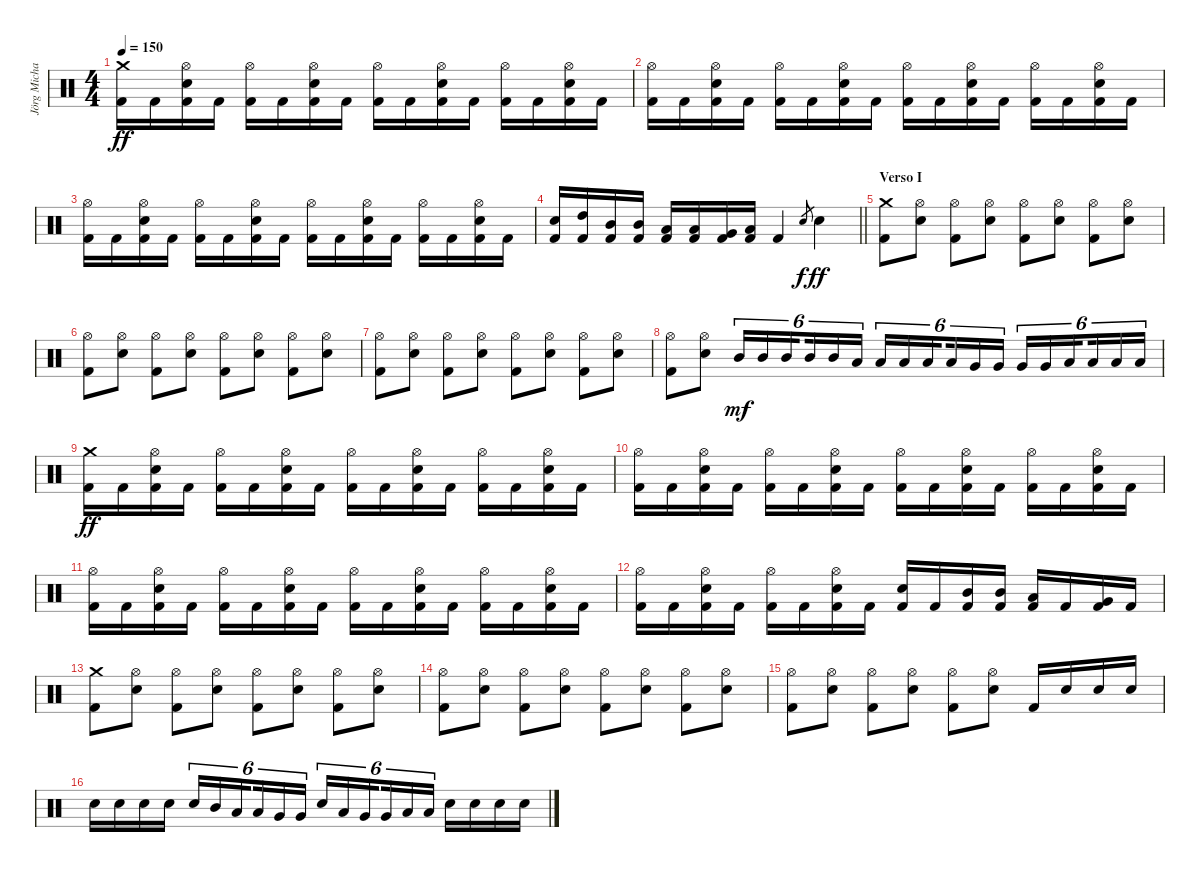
\track ("Jörg Michael" "Jörg Micha") {instrument percussion}
\staff {score}
\articulation defaults
\ts (4 4)
\tempo 150
\clef neutral
\ks c
("Crash medium (hit)" "Kick (hit) 2").16{dy ff} "Kick (hit) 2".16 ("Hi-Hat (open)" "Electric Snare (hit)" "Kick (hit) 2").16 "Kick (hit) 2".16 ("Hi-Hat (open)" "Kick (hit) 2").16 "Kick (hit) 2".16 ("Hi-Hat (open)" "Electric Snare (hit)" "Kick (hit) 2").16 "Kick (hit) 2".16 ("Hi-Hat (open)" "Kick (hit) 2").16 "Kick (hit) 2".16 ("Hi-Hat (open)" "Electric Snare (hit)" "Kick (hit) 2").16 "Kick (hit) 2".16 ("Hi-Hat (open)" "Kick (hit) 2").16 "Kick (hit) 2".16 ("Hi-Hat (open)" "Electric Snare (hit)" "Kick (hit) 2").16 "Kick (hit) 2".16 |
("Hi-Hat (open)" "Kick (hit) 2").16 "Kick (hit) 2".16 ("Hi-Hat (open)" "Electric Snare (hit)" "Kick (hit) 2").16 "Kick (hit) 2".16 ("Hi-Hat (open)" "Kick (hit) 2").16 "Kick (hit) 2".16 ("Hi-Hat (open)" "Electric Snare (hit)" "Kick (hit) 2").16 "Kick (hit) 2".16 ("Hi-Hat (open)" "Kick (hit) 2").16 "Kick (hit) 2".16 ("Hi-Hat (open)" "Electric Snare (hit)" "Kick (hit) 2").16 "Kick (hit) 2".16 ("Hi-Hat (open)" "Kick (hit) 2").16 "Kick (hit) 2".16 ("Hi-Hat (open)" "Electric Snare (hit)" "Kick (hit) 2").16 "Kick (hit) 2".16 |
("Hi-Hat (open)" "Kick (hit) 2").16 "Kick (hit) 2".16 ("Hi-Hat (open)" "Electric Snare (hit)" "Kick (hit) 2").16 "Kick (hit) 2".16 ("Hi-Hat (open)" "Kick (hit) 2").16 "Kick (hit) 2".16 ("Hi-Hat (open)" "Electric Snare (hit)" "Kick (hit) 2").16 "Kick (hit) 2".16 ("Hi-Hat (open)" "Kick (hit) 2").16 "Kick (hit) 2".16 ("Hi-Hat (open)" "Electric Snare (hit)" "Kick (hit) 2").16 "Kick (hit) 2".16 ("Hi-Hat (open)" "Kick (hit) 2").16 "Kick (hit) 2".16 ("Hi-Hat (open)" "Electric Snare (hit)" "Kick (hit) 2").16 "Kick (hit) 2".16 |
\barLineRight lightlight
("Electric Snare (hit)" "Kick (hit) 2").16 ("High Tom (hit)" "Kick (hit) 2").16 ("Mid Tom (hit)" "Kick (hit) 2").16 ("Mid Tom (hit)" "Kick (hit) 2").16 ("Low Tom (hit)" "Kick (hit) 2").16 ("Low Tom (hit)" "Kick (hit) 2").16 ("Very Low Tom (hit)" "Kick (hit) 2").16 ("Low Floor Tom (hit)" "Kick (hit) 2").16 "Kick (hit) 2".4 "Electric Snare (hit)".8{gr dy f} "Electric Snare (hit)".4{dy ff} |
\section ("" "Verso I")
("Crash medium (hit)" "Kick (hit) 2").8 ("Hi-Hat (open)" "Electric Snare (hit)").8 ("Hi-Hat (open)" "Kick (hit) 2").8 ("Hi-Hat (open)" "Electric Snare (hit)").8 ("Hi-Hat (open)" "Kick (hit) 2").8 ("Hi-Hat (open)" "Electric Snare (hit)").8 ("Hi-Hat (open)" "Kick (hit) 2").8 ("Hi-Hat (open)" "Electric Snare (hit)").8 |
("Hi-Hat (open)" "Kick (hit) 2").8 ("Hi-Hat (open)" "Electric Snare (hit)").8 ("Hi-Hat (open)" "Kick (hit) 2").8 ("Hi-Hat (open)" "Electric Snare (hit)").8 ("Hi-Hat (open)" "Kick (hit) 2").8 ("Hi-Hat (open)" "Electric Snare (hit)").8 ("Hi-Hat (open)" "Kick (hit) 2").8 ("Hi-Hat (open)" "Electric Snare (hit)").8 |
("Hi-Hat (open)" "Kick (hit) 2").8 ("Hi-Hat (open)" "Electric Snare (hit)").8 ("Hi-Hat (open)" "Kick (hit) 2").8 ("Hi-Hat (open)" "Electric Snare (hit)").8 ("Hi-Hat (open)" "Kick (hit) 2").8 ("Hi-Hat (open)" "Electric Snare (hit)").8 ("Hi-Hat (open)" "Kick (hit) 2").8 ("Hi-Hat (open)" "Electric Snare (hit)").8 |
("Hi-Hat (open)" "Kick (hit) 2").8 ("Hi-Hat (open)" "Electric Snare (hit)").8 "Mid Tom (hit)".16{tu (6 4) dy mf} "Mid Tom (hit)".16{tu (6 4)} "Mid Tom (hit)".16{tu (6 4) beam splitsecondary} "Mid Tom (hit)".16{tu (6 4)} "Mid Tom (hit)".16{tu (6 4)} "Low Tom (hit)".16{tu (6 4)} "Low Tom (hit)".16{tu (6 4)} "Low Tom (hit)".16{tu (6 4)} "Low Tom (hit)".16{tu (6 4) beam splitsecondary} "Low Tom (hit)".16{tu (6 4)} "Very Low Tom (hit)".16{tu (6 4)} "Very Low Tom (hit)".16{tu (6 4)} "Very Low Tom (hit)".16{tu (6 4)} "Very Low Tom (hit)".16{tu (6 4)} "Low Floor Tom (hit)".16{tu (6 4) beam splitsecondary} "Low Floor Tom (hit)".16{tu (6 4)} "Low Floor Tom (hit)".16{tu (6 4)} "Low Floor Tom (hit)".16{tu (6 4)} |
("Crash medium (hit)" "Kick (hit) 2").16{dy ff} "Kick (hit) 2".16 ("Hi-Hat (open)" "Electric Snare (hit)" "Kick (hit) 2").16 "Kick (hit) 2".16 ("Hi-Hat (open)" "Kick (hit) 2").16 "Kick (hit) 2".16 ("Hi-Hat (open)" "Electric Snare (hit)" "Kick (hit) 2").16 "Kick (hit) 2".16 ("Hi-Hat (open)" "Kick (hit) 2").16 "Kick (hit) 2".16 ("Hi-Hat (open)" "Electric Snare (hit)" "Kick (hit) 2").16 "Kick (hit) 2".16 ("Hi-Hat (open)" "Kick (hit) 2").16 "Kick (hit) 2".16 ("Hi-Hat (open)" "Electric Snare (hit)" "Kick (hit) 2").16 "Kick (hit) 2".16 |
("Hi-Hat (open)" "Kick (hit) 2").16 "Kick (hit) 2".16 ("Hi-Hat (open)" "Electric Snare (hit)" "Kick (hit) 2").16 "Kick (hit) 2".16 ("Hi-Hat (open)" "Kick (hit) 2").16 "Kick (hit) 2".16 ("Hi-Hat (open)" "Electric Snare (hit)" "Kick (hit) 2").16 "Kick (hit) 2".16 ("Hi-Hat (open)" "Kick (hit) 2").16 "Kick (hit) 2".16 ("Hi-Hat (open)" "Electric Snare (hit)" "Kick (hit) 2").16 "Kick (hit) 2".16 ("Hi-Hat (open)" "Kick (hit) 2").16 "Kick (hit) 2".16 ("Hi-Hat (open)" "Electric Snare (hit)" "Kick (hit) 2").16 "Kick (hit) 2".16 |
("Hi-Hat (open)" "Kick (hit) 2").16 "Kick (hit) 2".16 ("Hi-Hat (open)" "Electric Snare (hit)" "Kick (hit) 2").16 "Kick (hit) 2".16 ("Hi-Hat (open)" "Kick (hit) 2").16 "Kick (hit) 2".16 ("Hi-Hat (open)" "Electric Snare (hit)" "Kick (hit) 2").16 "Kick (hit) 2".16 ("Hi-Hat (open)" "Kick (hit) 2").16 "Kick (hit) 2".16 ("Hi-Hat (open)" "Electric Snare (hit)" "Kick (hit) 2").16 "Kick (hit) 2".16 ("Hi-Hat (open)" "Kick (hit) 2").16 "Kick (hit) 2".16 ("Hi-Hat (open)" "Electric Snare (hit)" "Kick (hit) 2").16 "Kick (hit) 2".16 |
("Hi-Hat (open)" "Kick (hit) 2").16 "Kick (hit) 2".16 ("Hi-Hat (open)" "Electric Snare (hit)" "Kick (hit) 2").16 "Kick (hit) 2".16 ("Hi-Hat (open)" "Kick (hit) 2").16 "Kick (hit) 2".16 ("Hi-Hat (open)" "Electric Snare (hit)" "Kick (hit) 2").16 "Kick (hit) 2".16 ("Electric Snare (hit)" "Kick (hit) 2").16 "Kick (hit) 2".16 ("Mid Tom (hit)" "Kick (hit) 2").16 ("Mid Tom (hit)" "Kick (hit) 2").16 ("Low Tom (hit)" "Kick (hit) 2").16 "Kick (hit) 2".16 ("Very Low Tom (hit)" "Kick (hit) 2").16 "Kick (hit) 2".16 |
("Crash medium (hit)" "Kick (hit) 2").8 ("Hi-Hat (open)" "Electric Snare (hit)").8 ("Hi-Hat (open)" "Kick (hit) 2").8 ("Hi-Hat (open)" "Electric Snare (hit)").8 ("Hi-Hat (open)" "Kick (hit) 2").8 ("Hi-Hat (open)" "Electric Snare (hit)").8 ("Hi-Hat (open)" "Kick (hit) 2").8 ("Hi-Hat (open)" "Electric Snare (hit)").8 |
("Hi-Hat (open)" "Kick (hit) 2").8 ("Hi-Hat (open)" "Electric Snare (hit)").8 ("Hi-Hat (open)" "Kick (hit) 2").8 ("Hi-Hat (open)" "Electric Snare (hit)").8 ("Hi-Hat (open)" "Kick (hit) 2").8 ("Hi-Hat (open)" "Electric Snare (hit)").8 ("Hi-Hat (open)" "Kick (hit) 2").8 ("Hi-Hat (open)" "Electric Snare (hit)").8 |
("Hi-Hat (open)" "Kick (hit) 2").8 ("Hi-Hat (open)" "Electric Snare (hit)").8 ("Hi-Hat (open)" "Kick (hit) 2").8 ("Hi-Hat (open)" "Electric Snare (hit)").8 ("Hi-Hat (open)" "Kick (hit) 2").8 ("Hi-Hat (open)" "Electric Snare (hit)").8 "Kick (hit) 2".16 "Electric Snare (hit)".16 "Electric Snare (hit)".16 "Electric Snare (hit)".16 |
"Electric Snare (hit)".16 "Electric Snare (hit)".16 "Electric Snare (hit)".16 "Electric Snare (hit)".16 "Electric Snare (hit)".16{tu (6 4)} "Mid Tom (hit)".16{tu (6 4)} "Low Tom (hit)".16{tu (6 4) beam splitsecondary} "Low Tom (hit)".16{tu (6 4)} "Very Low Tom (hit)".16{tu (6 4)} "Very Low Tom (hit)".16{tu (6 4)} "Electric Snare (hit)".16{tu (6 4)} "Low Tom (hit)".16{tu (6 4)} "Very Low Tom (hit)".16{tu (6 4) beam splitsecondary} "Very Low Tom (hit)".16{tu (6 4)} "Low Floor Tom (hit)".16{tu (6 4)} "Low Floor Tom (hit)".16{tu (6 4)} "Electric Snare (hit)".16 "Electric Snare (hit)".16 "Electric Snare (hit)".16 "Electric Snare (hit)".16
